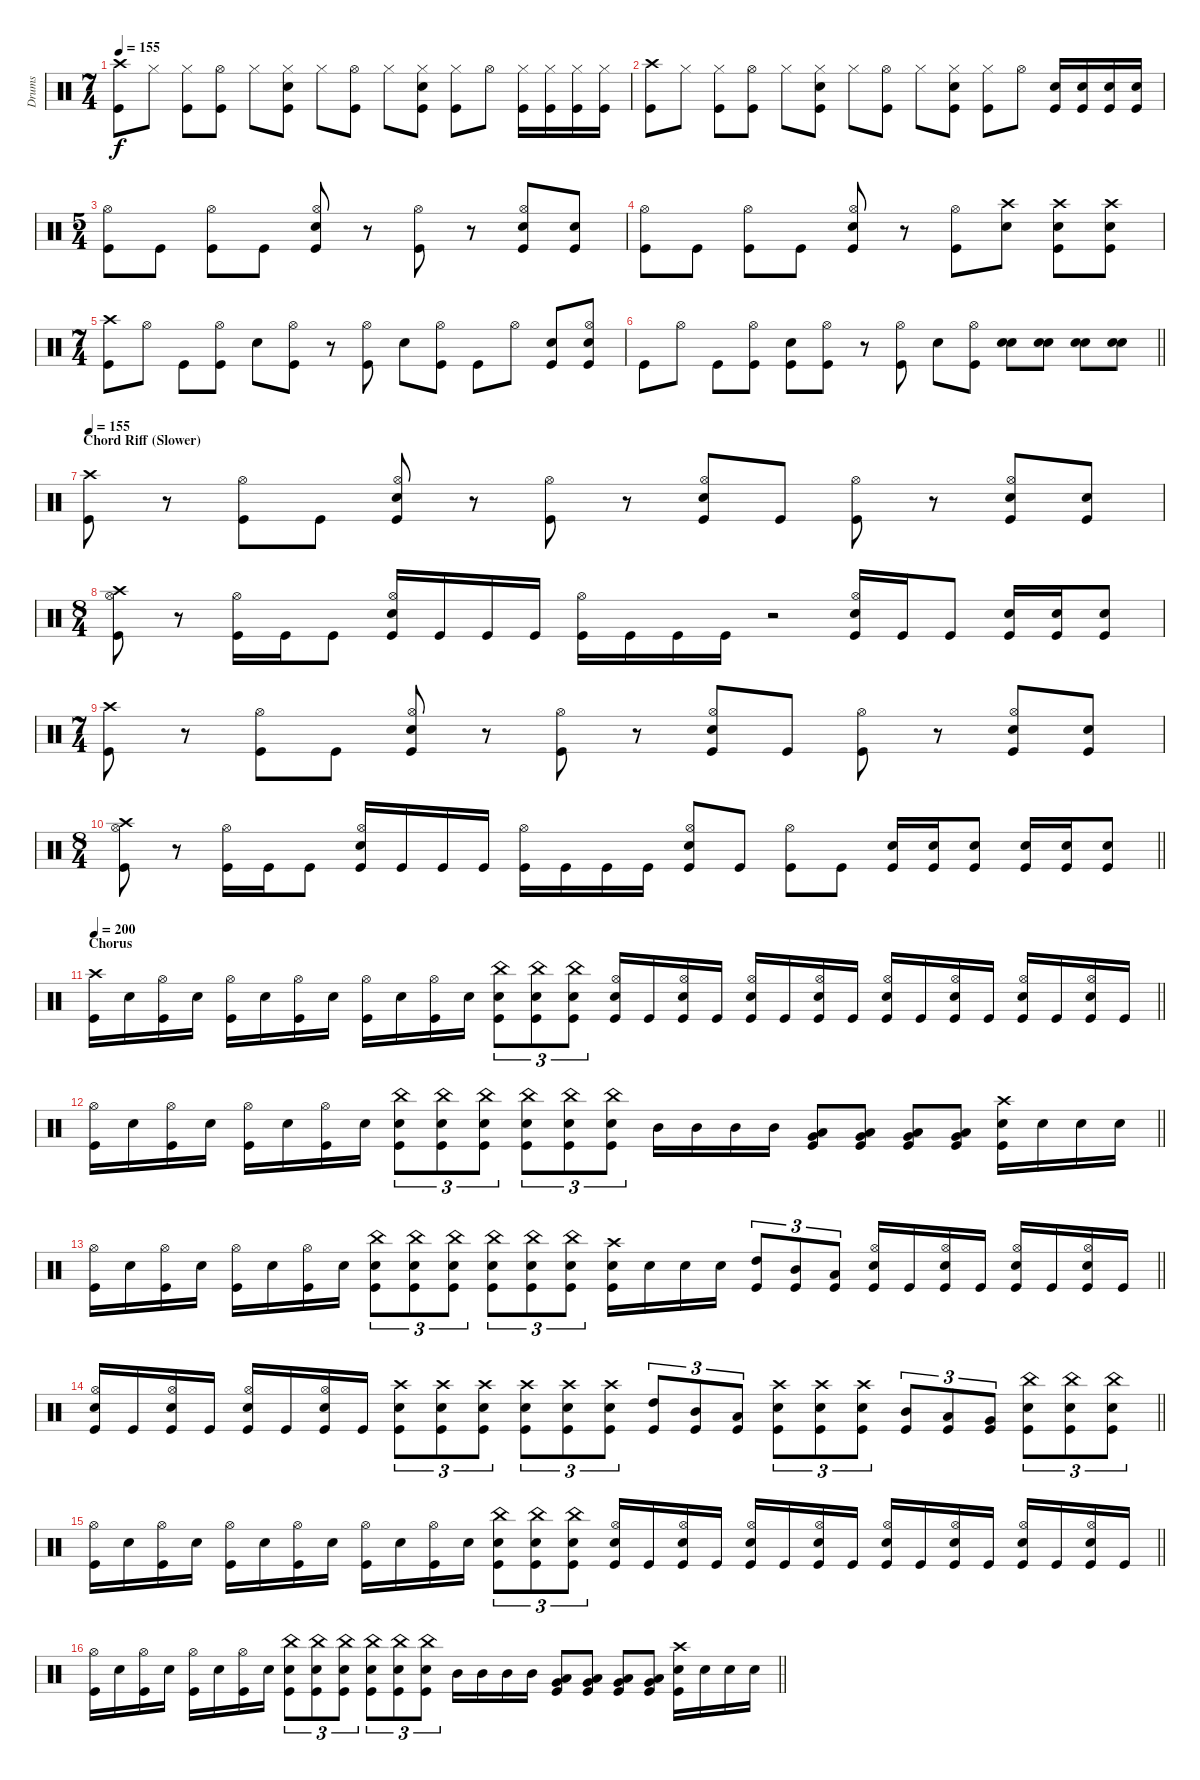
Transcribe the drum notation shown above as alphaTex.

\track ("Drums" "Drums") {instrument percussion}
\staff {score}
\articulation defaults
\ts (7 4)
\tempo 155
\clef neutral
\ks c
("Crash high (hit)" "Kick (hit)").8{dy f} "Hi-Hat (closed)".8 ("Hi-Hat (closed)" "Kick (hit)").8 ("Hi-Hat (open)" "Kick (hit)").8 "Hi-Hat (closed)".8 ("Hi-Hat (closed)" "Kick (hit)" "Snare (hit) 2").8 "Hi-Hat (closed)".8 ("Hi-Hat (open)" "Kick (hit)").8 "Hi-Hat (closed)".8 ("Hi-Hat (closed)" "Kick (hit)" "Snare (hit) 2").8 ("Hi-Hat (closed)" "Kick (hit)").8 "Hi-Hat (open)".8 ("Hi-Hat (closed)" "Kick (hit)").16 ("Kick (hit)" "Hi-Hat (closed)").16 ("Hi-Hat (closed)" "Kick (hit)").16 ("Kick (hit)" "Hi-Hat (closed)").16 |
("Crash high (hit)" "Kick (hit)").8 "Hi-Hat (closed)".8 ("Hi-Hat (closed)" "Kick (hit)").8 ("Hi-Hat (open)" "Kick (hit)").8 "Hi-Hat (closed)".8 ("Hi-Hat (closed)" "Kick (hit)" "Snare (hit) 2").8 "Hi-Hat (closed)".8 ("Hi-Hat (open)" "Kick (hit)").8 "Hi-Hat (closed)".8 ("Hi-Hat (closed)" "Kick (hit)" "Snare (hit) 2").8 ("Hi-Hat (closed)" "Kick (hit)").8 "Hi-Hat (open)".8 ("Kick (hit)" "Snare (hit) 2").16 ("Kick (hit)" "Snare (hit) 2").16 ("Kick (hit)" "Snare (hit) 2").16 ("Kick (hit)" "Snare (hit) 2").16 |
\ts (5 4)
("Kick (hit)" "Hi-Hat (open)").8 "Kick (hit)".8 ("Kick (hit)" "Hi-Hat (open)").8 "Kick (hit)".8 ("Kick (hit)" "Snare (hit) 2" "Hi-Hat (open)").8 r.8 ("Kick (hit)" "Hi-Hat (open)").8 r.8 ("Kick (hit)" "Snare (hit) 2" "Hi-Hat (open)").8 ("Kick (hit)" "Snare (hit) 2").8 |
("Kick (hit)" "Hi-Hat (open)").8 "Kick (hit)".8 ("Kick (hit)" "Hi-Hat (open)").8 "Kick (hit)".8 ("Kick (hit)" "Snare (hit) 2" "Hi-Hat (open)").8 r.8 ("Kick (hit)" "Hi-Hat (open)").8 ("Snare (hit) 2" "Crash high (hit)").8 ("Kick (hit)" "Snare (hit) 2" "Crash high (hit)").8 ("Kick (hit)" "Snare (hit) 2" "Crash high (hit)").8 |
\ts (7 4)
("Kick (hit)" "Crash high (hit)").8 "Hi-Hat (open)".8 "Kick (hit)".8 ("Kick (hit)" "Hi-Hat (open)").8 "Snare (hit) 2".8 ("Kick (hit)" "Hi-Hat (open)").8 r.8 ("Kick (hit)" "Hi-Hat (open)").8 "Snare (hit) 2".8 ("Kick (hit)" "Hi-Hat (open)").8 "Kick (hit)".8 "Hi-Hat (open)".8 ("Kick (hit)" "Snare (hit) 2").8 ("Kick (hit)" "Snare (hit) 2" "Hi-Hat (open)").8 |
\barLineRight lightlight "Kick (hit)".8 "Hi-Hat (open)".8 "Kick (hit)".8
("Kick (hit)" "Hi-Hat (open)").8 ("Kick (hit)" "Snare (hit) 2").8 ("Kick (hit)" "Hi-Hat (open)").8 r.8 ("Kick (hit)" "Hi-Hat (open)").8 "Snare (hit) 2".8 ("Kick (hit)" "Hi-Hat (open)").8 ("Snare (hit) 2" "Snare (hit) 2").8 ("Snare (hit) 2" "Snare (hit) 2").8 ("Snare (hit) 2" "Snare (hit) 2").8 ("Snare (hit) 2" "Snare (hit) 2").8 |
\section ("" "Chord Riff (Slower)")
\tempo 155
("Kick (hit)" "Crash high (hit)").8 r.8 ("Kick (hit)" "Hi-Hat (open)").8 "Kick (hit)".8 ("Kick (hit)" "Snare (hit) 2" "Hi-Hat (open)").8 r.8 ("Kick (hit)" "Hi-Hat (open)").8 r.8 ("Kick (hit)" "Hi-Hat (open)" "Snare (hit) 2").8 "Kick (hit)".8 ("Kick (hit)" "Hi-Hat (open)").8 r.8 ("Kick (hit)" "Snare (hit) 2" "Hi-Hat (open)").8 ("Kick (hit)" "Snare (hit) 2").8 |
\ts (8 4)
("Kick (hit)" "Hi-Hat (open)" "Crash high (hit)").8 r.8 ("Kick (hit)" "Hi-Hat (open)").16 "Kick (hit)".16 "Kick (hit)".8 ("Kick (hit)" "Snare (hit) 2" "Hi-Hat (open)").16 "Kick (hit)".16 "Kick (hit)".16 "Kick (hit)".16 ("Kick (hit)" "Hi-Hat (open)").16 "Kick (hit)".16 "Kick (hit)".16 "Kick (hit)".16 r.2 ("Kick (hit)" "Snare (hit) 2" "Hi-Hat (open)").16 "Kick (hit)".16 "Kick (hit)".8 ("Kick (hit)" "Snare (hit) 2").16 ("Kick (hit)" "Snare (hit) 2").16 ("Kick (hit)" "Snare (hit) 2").8 |
\ts (7 4)
("Kick (hit)" "Crash high (hit)").8 r.8 ("Kick (hit)" "Hi-Hat (open)").8 "Kick (hit)".8 ("Kick (hit)" "Snare (hit) 2" "Hi-Hat (open)").8 r.8 ("Kick (hit)" "Hi-Hat (open)").8 r.8 ("Kick (hit)" "Hi-Hat (open)" "Snare (hit) 2").8 "Kick (hit)".8 ("Kick (hit)" "Hi-Hat (open)").8 r.8 ("Kick (hit)" "Snare (hit) 2" "Hi-Hat (open)").8 ("Kick (hit)" "Snare (hit) 2").8 |
\ts (8 4)
\barLineRight lightlight
("Kick (hit)" "Crash high (hit)" "Hi-Hat (open)").8 r.8 ("Kick (hit)" "Hi-Hat (open)").16 "Kick (hit)".16 "Kick (hit)".8 ("Kick (hit)" "Snare (hit) 2" "Hi-Hat (open)").16 "Kick (hit)".16 "Kick (hit)".16 "Kick (hit)".16 ("Kick (hit)" "Hi-Hat (open)").16 "Kick (hit)".16 "Kick (hit)".16 "Kick (hit)".16 ("Kick (hit)" "Hi-Hat (open)" "Snare (hit) 2").8 "Kick (hit)".8 ("Kick (hit)" "Hi-Hat (open)").8 "Kick (hit)".8 ("Kick (hit)" "Snare (hit) 2").16 ("Kick (hit)" "Snare (hit) 2").16 ("Kick (hit)" "Snare (hit) 2").8 ("Kick (hit)" "Snare (hit) 2").16 ("Kick (hit)" "Snare (hit) 2").16 ("Kick (hit)" "Snare (hit) 2").8 |
\section ("" "Chorus")
\tempo 200
\barLineRight lightlight
("Crash high (hit)" "Kick (hit)").16 "Snare (hit) 2".16 ("Kick (hit)" "Hi-Hat (open)").16 "Snare (hit) 2".16 ("Kick (hit)" "Hi-Hat (open)").16 "Snare (hit) 2".16 ("Kick (hit)" "Hi-Hat (open)").16 "Snare (hit) 2".16 ("Kick (hit)" "Hi-Hat (open)").16 "Snare (hit) 2".16 ("Kick (hit)" "Hi-Hat (open)").16 "Snare (hit) 2".16 ("Kick (hit)" "Snare (hit) 2" "China (hit)").8{tu (3 2)} ("Kick (hit)" "Snare (hit) 2" "China (hit)").8{tu (3 2)} ("Kick (hit)" "Snare (hit) 2" "China (hit)").8{tu (3 2)} ("Kick (hit)" "Snare (hit) 2" "Hi-Hat (open)").16 "Kick (hit)".16 ("Kick (hit)" "Snare (hit) 2" "Hi-Hat (open)").16 "Kick (hit)".16 ("Kick (hit)" "Snare (hit) 2" "Hi-Hat (open)").16 "Kick (hit)".16 ("Kick (hit)" "Snare (hit) 2" "Hi-Hat (open)").16 "Kick (hit)".16 ("Kick (hit)" "Snare (hit) 2" "Hi-Hat (open)").16 "Kick (hit)".16 ("Kick (hit)" "Snare (hit) 2" "Hi-Hat (open)").16 "Kick (hit)".16 ("Kick (hit)" "Snare (hit) 2" "Hi-Hat (open)").16 "Kick (hit)".16 ("Kick (hit)" "Snare (hit) 2" "Hi-Hat (open)").16 "Kick (hit)".16 |
\barLineRight lightlight
("Hi-Hat (open)" "Kick (hit)").16 "Snare (hit) 2".16 ("Kick (hit)" "Hi-Hat (open)").16 "Snare (hit) 2".16 ("Kick (hit)" "Hi-Hat (open)").16 "Snare (hit) 2".16 ("Kick (hit)" "Hi-Hat (open)").16 "Snare (hit) 2".16 ("Kick (hit)" "Snare (hit) 2" "China (hit)").8{tu (3 2)} ("Kick (hit)" "Snare (hit) 2" "China (hit)").8{tu (3 2)} ("Kick (hit)" "Snare (hit) 2" "China (hit)").8{tu (3 2)} ("Kick (hit)" "Snare (hit) 2" "China (hit)").8{tu (3 2)} ("Kick (hit)" "Snare (hit) 2" "China (hit)").8{tu (3 2)} ("Kick (hit)" "Snare (hit) 2" "China (hit)").8{tu (3 2)} "Mid Tom (hit)".16 "Mid Tom (hit)".16 "Mid Tom (hit)".16 "Mid Tom (hit)".16 ("Kick (hit)" "Low Tom (hit)" "Very Low Tom (hit)").8 ("Kick (hit)" "Low Tom (hit)" "Very Low Tom (hit)").8 ("Kick (hit)" "Very Low Tom (hit)" "Low Floor Tom (hit)").8 ("Kick (hit)" "Very Low Tom (hit)" "Low Floor Tom (hit)").8 ("Kick (hit)" "Crash high (hit)" "Snare (hit) 2").16 "Snare (hit) 2".16 "Snare (hit) 2".16 "Snare (hit) 2".16 |
\barLineRight lightlight
("Hi-Hat (open)" "Kick (hit)").16 "Snare (hit) 2".16 ("Kick (hit)" "Hi-Hat (open)").16 "Snare (hit) 2".16 ("Kick (hit)" "Hi-Hat (open)").16 "Snare (hit) 2".16 ("Kick (hit)" "Hi-Hat (open)").16 "Snare (hit) 2".16 ("Kick (hit)" "Snare (hit) 2" "China (hit)").8{tu (3 2)} ("Kick (hit)" "Snare (hit) 2" "China (hit)").8{tu (3 2)} ("Kick (hit)" "Snare (hit) 2" "China (hit)").8{tu (3 2)} ("Kick (hit)" "Snare (hit) 2" "China (hit)").8{tu (3 2)} ("Kick (hit)" "Snare (hit) 2" "China (hit)").8{tu (3 2)} ("Kick (hit)" "Snare (hit) 2" "China (hit)").8{tu (3 2)} ("Kick (hit)" "Crash high (hit)" "Snare (hit) 2").16 "Snare (hit) 2".16 "Snare (hit) 2".16 "Snare (hit) 2".16 ("Kick (hit)" "High Tom (hit)").8{tu (3 2)} ("Kick (hit)" "Mid Tom (hit)").8{tu (3 2)} ("Kick (hit)" "Low Tom (hit)").8{tu (3 2)} ("Kick (hit)" "Snare (hit) 2" "Hi-Hat (open)").16 "Kick (hit)".16 ("Kick (hit)" "Snare (hit) 2" "Hi-Hat (open)").16 "Kick (hit)".16 ("Kick (hit)" "Snare (hit) 2" "Hi-Hat (open)").16 "Kick (hit)".16 ("Kick (hit)" "Snare (hit) 2" "Hi-Hat (open)").16 "Kick (hit)".16 |
\barLineRight lightlight
("Kick (hit)" "Snare (hit) 2" "Hi-Hat (open)").16 "Kick (hit)".16 ("Kick (hit)" "Snare (hit) 2" "Hi-Hat (open)").16 "Kick (hit)".16 ("Kick (hit)" "Snare (hit) 2" "Hi-Hat (open)").16 "Kick (hit)".16 ("Kick (hit)" "Snare (hit) 2" "Hi-Hat (open)").16 "Kick (hit)".16 ("Kick (hit)" "Snare (hit) 2" "Crash high (hit)").8{tu (3 2)} ("Kick (hit)" "Snare (hit) 2" "Crash high (hit)").8{tu (3 2)} ("Kick (hit)" "Snare (hit) 2" "Crash high (hit)").8{tu (3 2)} ("Kick (hit)" "Snare (hit) 2" "Crash high (hit)").8{tu (3 2)} ("Kick (hit)" "Snare (hit) 2" "Crash high (hit)").8{tu (3 2)} ("Kick (hit)" "Snare (hit) 2" "Crash high (hit)").8{tu (3 2)} ("Kick (hit)" "High Tom (hit)").8{tu (3 2)} ("Kick (hit)" "Mid Tom (hit)").8{tu (3 2)} ("Kick (hit)" "Low Tom (hit)").8{tu (3 2)} ("Kick (hit)" "Snare (hit) 2" "Crash high (hit)").8{tu (3 2)} ("Kick (hit)" "Snare (hit) 2" "Crash high (hit)").8{tu (3 2)} ("Kick (hit)" "Snare (hit) 2" "Crash high (hit)").8{tu (3 2)} ("Kick (hit)" "Mid Tom (hit)").8{tu (3 2)} ("Kick (hit)" "Low Tom (hit)").8{tu (3 2)} ("Kick (hit)" "Very Low Tom (hit)").8{tu (3 2)} ("Kick (hit)" "Snare (hit) 2" "China (hit)").8{tu (3 2)} ("Kick (hit)" "Snare (hit) 2" "China (hit)").8{tu (3 2)} ("Kick (hit)" "Snare (hit) 2" "China (hit)").8{tu (3 2)} |
\barLineRight lightlight
("Hi-Hat (open)" "Kick (hit)").16 "Snare (hit) 2".16 ("Kick (hit)" "Hi-Hat (open)").16 "Snare (hit) 2".16 ("Kick (hit)" "Hi-Hat (open)").16 "Snare (hit) 2".16 ("Kick (hit)" "Hi-Hat (open)").16 "Snare (hit) 2".16 ("Kick (hit)" "Hi-Hat (open)").16 "Snare (hit) 2".16 ("Kick (hit)" "Hi-Hat (open)").16 "Snare (hit) 2".16 ("Kick (hit)" "Snare (hit) 2" "China (hit)").8{tu (3 2)} ("Kick (hit)" "Snare (hit) 2" "China (hit)").8{tu (3 2)} ("Kick (hit)" "Snare (hit) 2" "China (hit)").8{tu (3 2)} ("Kick (hit)" "Snare (hit) 2" "Hi-Hat (open)").16 "Kick (hit)".16 ("Kick (hit)" "Snare (hit) 2" "Hi-Hat (open)").16 "Kick (hit)".16 ("Kick (hit)" "Snare (hit) 2" "Hi-Hat (open)").16 "Kick (hit)".16 ("Kick (hit)" "Snare (hit) 2" "Hi-Hat (open)").16 "Kick (hit)".16 ("Kick (hit)" "Snare (hit) 2" "Hi-Hat (open)").16 "Kick (hit)".16 ("Kick (hit)" "Snare (hit) 2" "Hi-Hat (open)").16 "Kick (hit)".16 ("Kick (hit)" "Snare (hit) 2" "Hi-Hat (open)").16 "Kick (hit)".16 ("Kick (hit)" "Snare (hit) 2" "Hi-Hat (open)").16 "Kick (hit)".16 |
\barLineRight lightlight
("Hi-Hat (open)" "Kick (hit)").16 "Snare (hit) 2".16 ("Kick (hit)" "Hi-Hat (open)").16 "Snare (hit) 2".16 ("Kick (hit)" "Hi-Hat (open)").16 "Snare (hit) 2".16 ("Kick (hit)" "Hi-Hat (open)").16 "Snare (hit) 2".16 ("Kick (hit)" "Snare (hit) 2" "China (hit)").8{tu (3 2)} ("Kick (hit)" "Snare (hit) 2" "China (hit)").8{tu (3 2)} ("Kick (hit)" "Snare (hit) 2" "China (hit)").8{tu (3 2)} ("Kick (hit)" "Snare (hit) 2" "China (hit)").8{tu (3 2)} ("Kick (hit)" "Snare (hit) 2" "China (hit)").8{tu (3 2)} ("Kick (hit)" "Snare (hit) 2" "China (hit)").8{tu (3 2)} "Mid Tom (hit)".16 "Mid Tom (hit)".16 "Mid Tom (hit)".16 "Mid Tom (hit)".16 ("Kick (hit)" "Low Tom (hit)" "Very Low Tom (hit)").8 ("Kick (hit)" "Low Tom (hit)" "Very Low Tom (hit)").8 ("Kick (hit)" "Very Low Tom (hit)" "Low Floor Tom (hit)").8 ("Kick (hit)" "Very Low Tom (hit)" "Low Floor Tom (hit)").8 ("Kick (hit)" "Crash high (hit)" "Snare (hit) 2").16 "Snare (hit) 2".16 "Snare (hit) 2".16 "Snare (hit) 2".16
